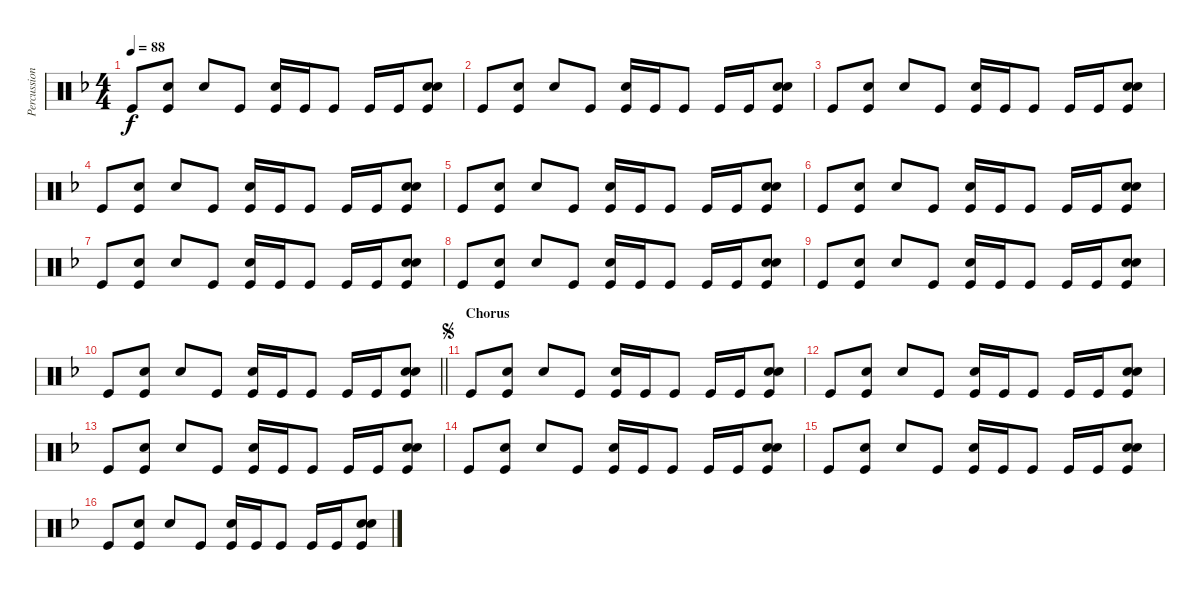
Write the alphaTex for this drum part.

\track ("Percussion" "Percussion") {instrument percussion}
\staff {score}
\articulation defaults
\ts (4 4)
\tempo 88
\clef neutral
\ks f "Kick (hit)".8{dy f}
("Snare (hit)" "Kick (hit)").8 "Electric Snare (hit)".8 "Kick (hit)".8 ("Snare (hit)" "Kick (hit)").16 "Kick (hit)".16 "Kick (hit)".8 "Kick (hit)".16 "Kick (hit)".16 ("Snare (hit)" "Electric Snare (hit)" "Kick (hit)").8 |
"Kick (hit)".8 ("Snare (hit)" "Kick (hit)").8 "Electric Snare (hit)".8 "Kick (hit)".8 ("Snare (hit)" "Kick (hit)").16 "Kick (hit)".16 "Kick (hit)".8 "Kick (hit)".16 "Kick (hit)".16 ("Snare (hit)" "Electric Snare (hit)" "Kick (hit)").8 |
"Kick (hit)".8 ("Snare (hit)" "Kick (hit)").8 "Electric Snare (hit)".8 "Kick (hit)".8 ("Snare (hit)" "Kick (hit)").16 "Kick (hit)".16 "Kick (hit)".8 "Kick (hit)".16 "Kick (hit)".16 ("Snare (hit)" "Electric Snare (hit)" "Kick (hit)").8 |
"Kick (hit)".8 ("Snare (hit)" "Kick (hit)").8 "Electric Snare (hit)".8 "Kick (hit)".8 ("Snare (hit)" "Kick (hit)").16 "Kick (hit)".16 "Kick (hit)".8 "Kick (hit)".16 "Kick (hit)".16 ("Snare (hit)" "Electric Snare (hit)" "Kick (hit)").8 |
"Kick (hit)".8 ("Snare (hit)" "Kick (hit)").8 "Electric Snare (hit)".8 "Kick (hit)".8 ("Snare (hit)" "Kick (hit)").16 "Kick (hit)".16 "Kick (hit)".8 "Kick (hit)".16 "Kick (hit)".16 ("Snare (hit)" "Electric Snare (hit)" "Kick (hit)").8 |
"Kick (hit)".8 ("Snare (hit)" "Kick (hit)").8 "Electric Snare (hit)".8 "Kick (hit)".8 ("Snare (hit)" "Kick (hit)").16 "Kick (hit)".16 "Kick (hit)".8 "Kick (hit)".16 "Kick (hit)".16 ("Snare (hit)" "Electric Snare (hit)" "Kick (hit)").8 |
"Kick (hit)".8 ("Snare (hit)" "Kick (hit)").8 "Electric Snare (hit)".8 "Kick (hit)".8 ("Snare (hit)" "Kick (hit)").16 "Kick (hit)".16 "Kick (hit)".8 "Kick (hit)".16 "Kick (hit)".16 ("Snare (hit)" "Electric Snare (hit)" "Kick (hit)").8 |
"Kick (hit)".8 ("Snare (hit)" "Kick (hit)").8 "Electric Snare (hit)".8 "Kick (hit)".8 ("Snare (hit)" "Kick (hit)").16 "Kick (hit)".16 "Kick (hit)".8 "Kick (hit)".16 "Kick (hit)".16 ("Snare (hit)" "Electric Snare (hit)" "Kick (hit)").8 |
"Kick (hit)".8 ("Snare (hit)" "Kick (hit)").8 "Electric Snare (hit)".8 "Kick (hit)".8 ("Snare (hit)" "Kick (hit)").16 "Kick (hit)".16 "Kick (hit)".8 "Kick (hit)".16 "Kick (hit)".16 ("Snare (hit)" "Electric Snare (hit)" "Kick (hit)").8 |
\barLineRight lightlight "Kick (hit)".8
("Snare (hit)" "Kick (hit)").8 "Electric Snare (hit)".8 "Kick (hit)".8 ("Snare (hit)" "Kick (hit)").16 "Kick (hit)".16 "Kick (hit)".8 "Kick (hit)".16 "Kick (hit)".16 ("Snare (hit)" "Electric Snare (hit)" "Kick (hit)").8 |
\section ("" "Chorus")
\jump segno "Kick (hit)".8
("Snare (hit)" "Kick (hit)").8 "Electric Snare (hit)".8 "Kick (hit)".8 ("Snare (hit)" "Kick (hit)").16 "Kick (hit)".16 "Kick (hit)".8 "Kick (hit)".16 "Kick (hit)".16 ("Snare (hit)" "Electric Snare (hit)" "Kick (hit)").8 |
"Kick (hit)".8 ("Snare (hit)" "Kick (hit)").8 "Electric Snare (hit)".8 "Kick (hit)".8 ("Snare (hit)" "Kick (hit)").16 "Kick (hit)".16 "Kick (hit)".8 "Kick (hit)".16 "Kick (hit)".16 ("Snare (hit)" "Electric Snare (hit)" "Kick (hit)").8 |
"Kick (hit)".8 ("Snare (hit)" "Kick (hit)").8 "Electric Snare (hit)".8 "Kick (hit)".8 ("Snare (hit)" "Kick (hit)").16 "Kick (hit)".16 "Kick (hit)".8 "Kick (hit)".16 "Kick (hit)".16 ("Snare (hit)" "Electric Snare (hit)" "Kick (hit)").8 |
"Kick (hit)".8 ("Snare (hit)" "Kick (hit)").8 "Electric Snare (hit)".8 "Kick (hit)".8 ("Snare (hit)" "Kick (hit)").16 "Kick (hit)".16 "Kick (hit)".8 "Kick (hit)".16 "Kick (hit)".16 ("Snare (hit)" "Electric Snare (hit)" "Kick (hit)").8 |
"Kick (hit)".8 ("Snare (hit)" "Kick (hit)").8 "Electric Snare (hit)".8 "Kick (hit)".8 ("Snare (hit)" "Kick (hit)").16 "Kick (hit)".16 "Kick (hit)".8 "Kick (hit)".16 "Kick (hit)".16 ("Snare (hit)" "Electric Snare (hit)" "Kick (hit)").8 |
"Kick (hit)".8 ("Snare (hit)" "Kick (hit)").8 "Electric Snare (hit)".8 "Kick (hit)".8 ("Snare (hit)" "Kick (hit)").16 "Kick (hit)".16 "Kick (hit)".8 "Kick (hit)".16 "Kick (hit)".16 ("Snare (hit)" "Electric Snare (hit)" "Kick (hit)").8
